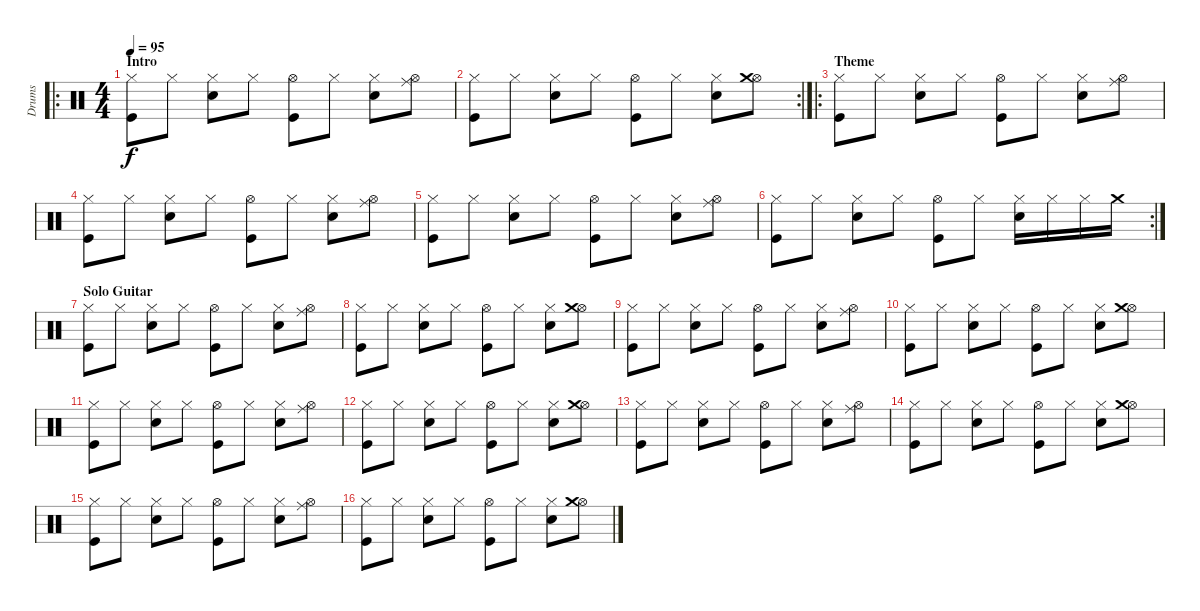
\track ("Drums" "Drums") {instrument percussion}
\staff {score}
\articulation defaults
\ro
\ts (4 4)
\section ("" "Intro")
\tempo 95
\clef neutral
\ks c
("Hi-Hat (closed)" "Kick (hit)").8{dy f} "Hi-Hat (closed)".8 ("Hi-Hat (closed)" "Snare (hit) 2").8 "Hi-Hat (closed)".8 ("Hi-Hat (open)" "Kick (hit)").8 "Hi-Hat (closed)".8 ("Hi-Hat (closed)" "Snare (hit) 2").8 ("Hi-Hat (open)" "Ride (middle)").8 |
\rc 2
("Hi-Hat (closed)" "Kick (hit)").8 "Hi-Hat (closed)".8 ("Hi-Hat (closed)" "Snare (hit) 2").8 "Hi-Hat (closed)".8 ("Hi-Hat (open)" "Kick (hit)").8 "Hi-Hat (closed)".8 ("Hi-Hat (closed)" "Snare (hit) 2").8 ("Hi-Hat (open)" "Crash medium (hit)").8 |
\ro
\section ("" "Theme")
("Hi-Hat (closed)" "Kick (hit)").8 "Hi-Hat (closed)".8 ("Hi-Hat (closed)" "Snare (hit) 2").8 "Hi-Hat (closed)".8 ("Hi-Hat (open)" "Kick (hit)").8 "Hi-Hat (closed)".8 ("Hi-Hat (closed)" "Snare (hit) 2").8 ("Hi-Hat (open)" "Ride (middle)").8 |
("Hi-Hat (closed)" "Kick (hit)").8 "Hi-Hat (closed)".8 ("Hi-Hat (closed)" "Snare (hit) 2").8 "Hi-Hat (closed)".8 ("Hi-Hat (open)" "Kick (hit)").8 "Hi-Hat (closed)".8 ("Hi-Hat (closed)" "Snare (hit) 2").8 ("Hi-Hat (open)" "Ride (middle)").8 |
("Hi-Hat (closed)" "Kick (hit)").8 "Hi-Hat (closed)".8 ("Hi-Hat (closed)" "Snare (hit) 2").8 "Hi-Hat (closed)".8 ("Hi-Hat (open)" "Kick (hit)").8 "Hi-Hat (closed)".8 ("Hi-Hat (closed)" "Snare (hit) 2").8 ("Hi-Hat (open)" "Ride (middle)").8 |
\rc 2
("Hi-Hat (closed)" "Kick (hit)").8 "Hi-Hat (closed)".8 ("Hi-Hat (closed)" "Snare (hit) 2").8 "Hi-Hat (closed)".8 ("Hi-Hat (open)" "Kick (hit)").8 "Hi-Hat (closed)".8 ("Hi-Hat (closed)" "Snare (hit) 2").16 "Hi-Hat (closed)".16 "Hi-Hat (closed)".16 "Crash medium (hit)".16 |
\section ("" "Solo Guitar")
("Hi-Hat (closed)" "Kick (hit)").8 "Hi-Hat (closed)".8 ("Hi-Hat (closed)" "Snare (hit) 2").8 "Hi-Hat (closed)".8 ("Hi-Hat (open)" "Kick (hit)").8 "Hi-Hat (closed)".8 ("Hi-Hat (closed)" "Snare (hit) 2").8 ("Hi-Hat (open)" "Ride (middle)").8 |
("Hi-Hat (closed)" "Kick (hit)").8 "Hi-Hat (closed)".8 ("Hi-Hat (closed)" "Snare (hit) 2").8 "Hi-Hat (closed)".8 ("Hi-Hat (open)" "Kick (hit)").8 "Hi-Hat (closed)".8 ("Hi-Hat (closed)" "Snare (hit) 2").8 ("Hi-Hat (open)" "Crash medium (hit)").8 |
("Hi-Hat (closed)" "Kick (hit)").8 "Hi-Hat (closed)".8 ("Hi-Hat (closed)" "Snare (hit) 2").8 "Hi-Hat (closed)".8 ("Hi-Hat (open)" "Kick (hit)").8 "Hi-Hat (closed)".8 ("Hi-Hat (closed)" "Snare (hit) 2").8 ("Hi-Hat (open)" "Ride (middle)").8 |
("Hi-Hat (closed)" "Kick (hit)").8 "Hi-Hat (closed)".8 ("Hi-Hat (closed)" "Snare (hit) 2").8 "Hi-Hat (closed)".8 ("Hi-Hat (open)" "Kick (hit)").8 "Hi-Hat (closed)".8 ("Hi-Hat (closed)" "Snare (hit) 2").8 ("Hi-Hat (open)" "Crash medium (hit)").8 |
("Hi-Hat (closed)" "Kick (hit)").8 "Hi-Hat (closed)".8 ("Hi-Hat (closed)" "Snare (hit) 2").8 "Hi-Hat (closed)".8 ("Hi-Hat (open)" "Kick (hit)").8 "Hi-Hat (closed)".8 ("Hi-Hat (closed)" "Snare (hit) 2").8 ("Hi-Hat (open)" "Ride (middle)").8 |
("Hi-Hat (closed)" "Kick (hit)").8 "Hi-Hat (closed)".8 ("Hi-Hat (closed)" "Snare (hit) 2").8 "Hi-Hat (closed)".8 ("Hi-Hat (open)" "Kick (hit)").8 "Hi-Hat (closed)".8 ("Hi-Hat (closed)" "Snare (hit) 2").8 ("Hi-Hat (open)" "Crash medium (hit)").8 |
("Hi-Hat (closed)" "Kick (hit)").8 "Hi-Hat (closed)".8 ("Hi-Hat (closed)" "Snare (hit) 2").8 "Hi-Hat (closed)".8 ("Hi-Hat (open)" "Kick (hit)").8 "Hi-Hat (closed)".8 ("Hi-Hat (closed)" "Snare (hit) 2").8 ("Hi-Hat (open)" "Ride (middle)").8 |
("Hi-Hat (closed)" "Kick (hit)").8 "Hi-Hat (closed)".8 ("Hi-Hat (closed)" "Snare (hit) 2").8 "Hi-Hat (closed)".8 ("Hi-Hat (open)" "Kick (hit)").8 "Hi-Hat (closed)".8 ("Hi-Hat (closed)" "Snare (hit) 2").8 ("Hi-Hat (open)" "Crash medium (hit)").8 |
("Hi-Hat (closed)" "Kick (hit)").8 "Hi-Hat (closed)".8 ("Hi-Hat (closed)" "Snare (hit) 2").8 "Hi-Hat (closed)".8 ("Hi-Hat (open)" "Kick (hit)").8 "Hi-Hat (closed)".8 ("Hi-Hat (closed)" "Snare (hit) 2").8 ("Hi-Hat (open)" "Ride (middle)").8 |
("Hi-Hat (closed)" "Kick (hit)").8 "Hi-Hat (closed)".8 ("Hi-Hat (closed)" "Snare (hit) 2").8 "Hi-Hat (closed)".8 ("Hi-Hat (open)" "Kick (hit)").8 "Hi-Hat (closed)".8 ("Hi-Hat (closed)" "Snare (hit) 2").8 ("Hi-Hat (open)" "Crash medium (hit)").8
